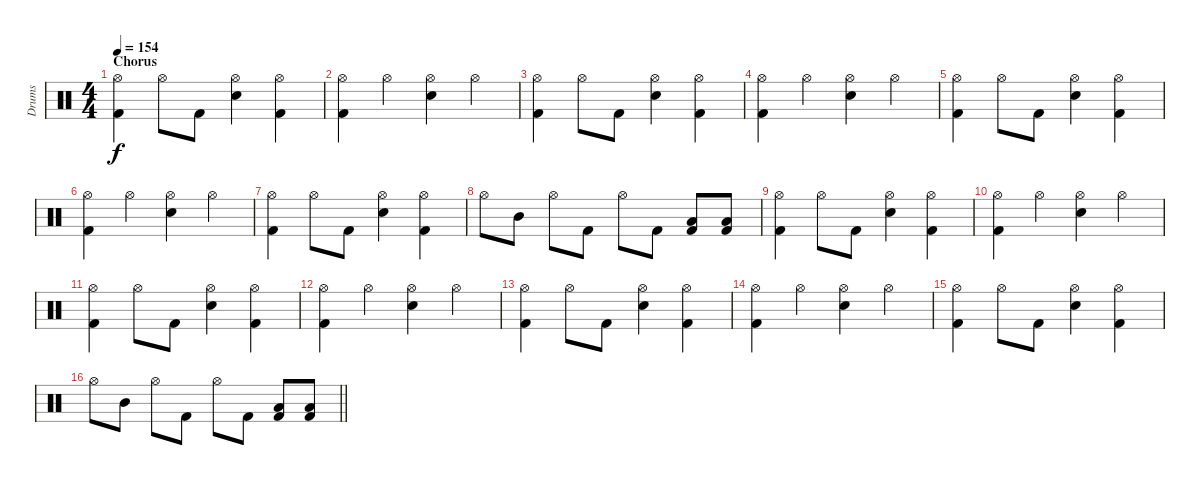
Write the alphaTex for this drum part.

\track ("Drums" "Drums") {instrument percussion}
\staff {score}
\articulation defaults
\ts (4 4)
\section ("" "Chorus")
\tempo 154
\clef neutral
\ks c
("Hi-Hat (open)" "Kick (hit) 2").4{dy f} "Hi-Hat (open)".8 "Kick (hit) 2".8 ("Hi-Hat (open)" "Snare (hit) 2").4 ("Hi-Hat (open)" "Kick (hit) 2").4 |
("Hi-Hat (open)" "Kick (hit) 2").4 "Hi-Hat (open)".4 ("Hi-Hat (open)" "Snare (hit) 2").4 "Hi-Hat (open)".4 |
("Hi-Hat (open)" "Kick (hit) 2").4 "Hi-Hat (open)".8 "Kick (hit) 2".8 ("Hi-Hat (open)" "Snare (hit) 2").4 ("Hi-Hat (open)" "Kick (hit) 2").4 |
("Hi-Hat (open)" "Kick (hit) 2").4 "Hi-Hat (open)".4 ("Hi-Hat (open)" "Snare (hit) 2").4 "Hi-Hat (open)".4 |
("Hi-Hat (open)" "Kick (hit) 2").4 "Hi-Hat (open)".8 "Kick (hit) 2".8 ("Hi-Hat (open)" "Snare (hit) 2").4 ("Hi-Hat (open)" "Kick (hit) 2").4 |
("Hi-Hat (open)" "Kick (hit) 2").4 "Hi-Hat (open)".4 ("Hi-Hat (open)" "Snare (hit) 2").4 "Hi-Hat (open)".4 |
("Hi-Hat (open)" "Kick (hit) 2").4 "Hi-Hat (open)".8 "Kick (hit) 2".8 ("Hi-Hat (open)" "Snare (hit) 2").4 ("Hi-Hat (open)" "Kick (hit) 2").4 |
"Hi-Hat (open)".8 "Mid Tom (hit)".8 "Hi-Hat (open)".8 "Kick (hit) 2".8 "Hi-Hat (open)".8 "Kick (hit) 2".8 ("Low Floor Tom (hit)" "Kick (hit) 2").8 ("Low Floor Tom (hit)" "Kick (hit) 2").8 |
("Hi-Hat (open)" "Kick (hit) 2").4 "Hi-Hat (open)".8 "Kick (hit) 2".8 ("Hi-Hat (open)" "Snare (hit) 2").4 ("Hi-Hat (open)" "Kick (hit) 2").4 |
("Hi-Hat (open)" "Kick (hit) 2").4 "Hi-Hat (open)".4 ("Hi-Hat (open)" "Snare (hit) 2").4 "Hi-Hat (open)".4 |
("Hi-Hat (open)" "Kick (hit) 2").4 "Hi-Hat (open)".8 "Kick (hit) 2".8 ("Hi-Hat (open)" "Snare (hit) 2").4 ("Hi-Hat (open)" "Kick (hit) 2").4 |
("Hi-Hat (open)" "Kick (hit) 2").4 "Hi-Hat (open)".4 ("Hi-Hat (open)" "Snare (hit) 2").4 "Hi-Hat (open)".4 |
("Hi-Hat (open)" "Kick (hit) 2").4 "Hi-Hat (open)".8 "Kick (hit) 2".8 ("Hi-Hat (open)" "Snare (hit) 2").4 ("Hi-Hat (open)" "Kick (hit) 2").4 |
("Hi-Hat (open)" "Kick (hit) 2").4 "Hi-Hat (open)".4 ("Hi-Hat (open)" "Snare (hit) 2").4 "Hi-Hat (open)".4 |
("Hi-Hat (open)" "Kick (hit) 2").4 "Hi-Hat (open)".8 "Kick (hit) 2".8 ("Hi-Hat (open)" "Snare (hit) 2").4 ("Hi-Hat (open)" "Kick (hit) 2").4 |
\barLineRight lightlight "Hi-Hat (open)".8 "Mid Tom (hit)".8 "Hi-Hat (open)".8 "Kick (hit) 2".8 "Hi-Hat (open)".8 "Kick (hit) 2".8
("Low Floor Tom (hit)" "Kick (hit) 2").8 ("Low Floor Tom (hit)" "Kick (hit) 2").8
